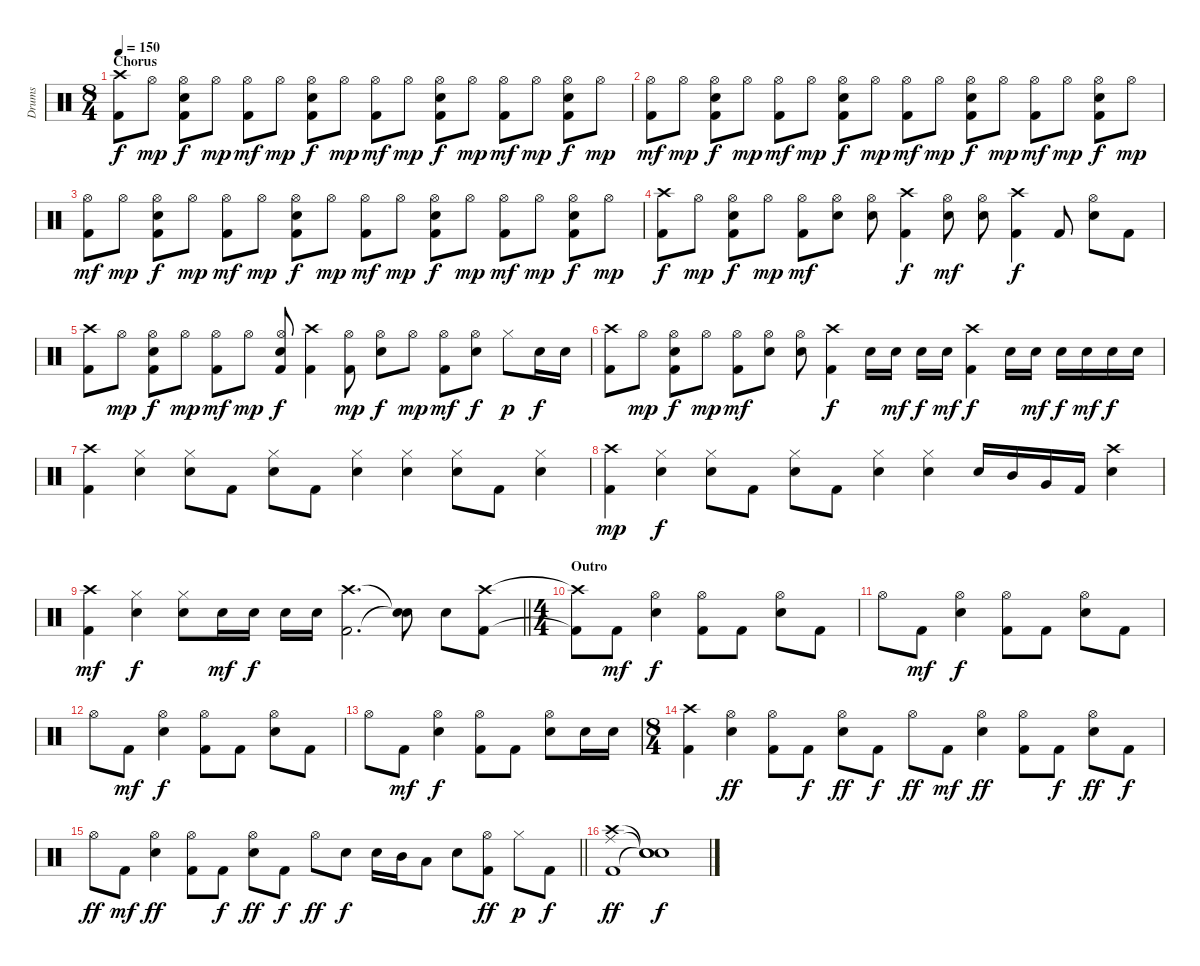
\track ("Drums" "Drums") {instrument percussion}
\staff {score}
\articulation defaults
\ts (8 4)
\section ("" "Chorus")
\tempo 150
\clef neutral
\ks c
("Crash high (hit)" "Kick (hit) 2").8{dy f} "Hi-Hat (open)".8{dy mp} ("Hi-Hat (open)" "Electric Snare (hit)" "Kick (hit) 2").8{dy f} "Hi-Hat (open)".8{dy mp} ("Hi-Hat (open)" "Kick (hit) 2").8{dy mf} "Hi-Hat (open)".8{dy mp} ("Hi-Hat (open)" "Electric Snare (hit)" "Kick (hit) 2").8{dy f} "Hi-Hat (open)".8{dy mp} ("Hi-Hat (open)" "Kick (hit) 2").8{dy mf} "Hi-Hat (open)".8{dy mp} ("Hi-Hat (open)" "Electric Snare (hit)" "Kick (hit) 2").8{dy f} "Hi-Hat (open)".8{dy mp} ("Hi-Hat (open)" "Kick (hit) 2").8{dy mf} "Hi-Hat (open)".8{dy mp} ("Hi-Hat (open)" "Electric Snare (hit)" "Kick (hit) 2").8{dy f} "Hi-Hat (open)".8{dy mp} |
("Hi-Hat (open)" "Kick (hit) 2").8{dy mf} "Hi-Hat (open)".8{dy mp} ("Hi-Hat (open)" "Electric Snare (hit)" "Kick (hit) 2").8{dy f} "Hi-Hat (open)".8{dy mp} ("Hi-Hat (open)" "Kick (hit) 2").8{dy mf} "Hi-Hat (open)".8{dy mp} ("Hi-Hat (open)" "Electric Snare (hit)" "Kick (hit) 2").8{dy f} "Hi-Hat (open)".8{dy mp} ("Hi-Hat (open)" "Kick (hit) 2").8{dy mf} "Hi-Hat (open)".8{dy mp} ("Hi-Hat (open)" "Electric Snare (hit)" "Kick (hit) 2").8{dy f} "Hi-Hat (open)".8{dy mp} ("Hi-Hat (open)" "Kick (hit) 2").8{dy mf} "Hi-Hat (open)".8{dy mp} ("Hi-Hat (open)" "Electric Snare (hit)" "Kick (hit) 2").8{dy f} "Hi-Hat (open)".8{dy mp} |
("Hi-Hat (open)" "Kick (hit) 2").8{dy mf} "Hi-Hat (open)".8{dy mp} ("Hi-Hat (open)" "Electric Snare (hit)" "Kick (hit) 2").8{dy f} "Hi-Hat (open)".8{dy mp} ("Hi-Hat (open)" "Kick (hit) 2").8{dy mf} "Hi-Hat (open)".8{dy mp} ("Hi-Hat (open)" "Electric Snare (hit)" "Kick (hit) 2").8{dy f} "Hi-Hat (open)".8{dy mp} ("Hi-Hat (open)" "Kick (hit) 2").8{dy mf} "Hi-Hat (open)".8{dy mp} ("Hi-Hat (open)" "Electric Snare (hit)" "Kick (hit) 2").8{dy f} "Hi-Hat (open)".8{dy mp} ("Hi-Hat (open)" "Kick (hit) 2").8{dy mf} "Hi-Hat (open)".8{dy mp} ("Hi-Hat (open)" "Electric Snare (hit)" "Kick (hit) 2").8{dy f} "Hi-Hat (open)".8{dy mp} |
("Crash high (hit)" "Kick (hit) 2").8{dy f} "Hi-Hat (open)".8{dy mp} ("Hi-Hat (open)" "Electric Snare (hit)" "Kick (hit) 2").8{dy f} "Hi-Hat (open)".8{dy mp} ("Hi-Hat (open)" "Kick (hit) 2").8{dy mf} ("Hi-Hat (open)" "Electric Snare (hit)").8 ("Hi-Hat (open)" "Electric Snare (hit)").8 ("Crash high (hit)" "Kick (hit) 2").4{dy f} ("Hi-Hat (open)" "Electric Snare (hit)").8{dy mf} ("Hi-Hat (open)" "Electric Snare (hit)").8 ("Crash high (hit)" "Kick (hit) 2").4{dy f} "Kick (hit) 2".8 ("Hi-Hat (open)" "Electric Snare (hit)").8 "Kick (hit) 2".8 |
("Crash high (hit)" "Kick (hit) 2").8 "Hi-Hat (open)".8{dy mp} ("Hi-Hat (open)" "Electric Snare (hit)" "Kick (hit) 2").8{dy f} "Hi-Hat (open)".8{dy mp} ("Hi-Hat (open)" "Kick (hit) 2").8{dy mf} "Hi-Hat (open)".8{dy mp} ("Hi-Hat (open)" "Electric Snare (hit)" "Kick (hit) 2").8{dy f} ("Crash high (hit)" "Kick (hit) 2").4 ("Hi-Hat (open)" "Kick (hit) 2").8{dy mp} ("Hi-Hat (open)" "Electric Snare (hit)").8{dy f} "Hi-Hat (open)".8{dy mp} ("Hi-Hat (open)" "Kick (hit) 2").8{dy mf} ("Hi-Hat (open)" "Electric Snare (hit)").8{dy f} "Hi-Hat (closed)".8{dy p} "Electric Snare (hit)".16{dy f} "Electric Snare (hit)".16 |
("Crash high (hit)" "Kick (hit) 2").8 "Hi-Hat (open)".8{dy mp} ("Hi-Hat (open)" "Electric Snare (hit)" "Kick (hit) 2").8{dy f} "Hi-Hat (open)".8{dy mp} ("Hi-Hat (open)" "Kick (hit) 2").8{dy mf} ("Hi-Hat (open)" "Electric Snare (hit)").8 ("Hi-Hat (open)" "Electric Snare (hit)").8 ("Crash high (hit)" "Kick (hit) 2").4{dy f} "Electric Snare (hit)".16 "Electric Snare (hit)".16{dy mf} "Electric Snare (hit)".16{dy f} "Electric Snare (hit)".16{dy mf} ("Crash high (hit)" "Kick (hit) 2").4{dy f} "Electric Snare (hit)".16 "Electric Snare (hit)".16{dy mf} "Electric Snare (hit)".16{dy f} "Electric Snare (hit)".16{dy mf} "Electric Snare (hit)".16{dy f} "Electric Snare (hit)".16 |
("Crash high (hit)" "Kick (hit) 2").4 ("Hi-Hat (closed)" "Electric Snare (hit)").4 ("Hi-Hat (closed)" "Electric Snare (hit)").8 "Kick (hit) 2".8 ("Hi-Hat (closed)" "Electric Snare (hit)").8 "Kick (hit) 2".8 ("Hi-Hat (closed)" "Electric Snare (hit)").4 ("Hi-Hat (closed)" "Electric Snare (hit)").4 ("Hi-Hat (closed)" "Electric Snare (hit)").8 "Kick (hit) 2".8 ("Hi-Hat (closed)" "Electric Snare (hit)").4 |
("Crash high (hit)" "Kick (hit) 2").4{dy mp} ("Hi-Hat (closed)" "Electric Snare (hit)").4{dy f} ("Hi-Hat (closed)" "Electric Snare (hit)").8 "Kick (hit) 2".8 ("Hi-Hat (closed)" "Electric Snare (hit)").8 "Kick (hit) 2".8 ("Hi-Hat (closed)" "Electric Snare (hit)").4 ("Hi-Hat (closed)" "Electric Snare (hit)").4 "Electric Snare (hit)".16 "Mid Tom (hit)".16 "Very Low Tom (hit)".16 "Kick (hit) 2".16 ("Crash high (hit)" "Electric Snare (hit)").4 |
\barLineRight lightlight
("Crash high (hit)" "Kick (hit) 2").4{dy mf} ("Hi-Hat (closed)" "Electric Snare (hit)").4{dy f} ("Hi-Hat (closed)" "Electric Snare (hit)").8 "Electric Snare (hit)".16{dy mf} "Electric Snare (hit)".16{dy f} "Electric Snare (hit)".16 "Electric Snare (hit)".16 ("Crash high (hit)" "Kick (hit) 2").2{d} ("Snare (hit)"{t} "Snare (hit)"{t}).8 "Electric Snare (hit)".8 ("Crash high (hit)" "Kick (hit) 2").8 |
\ts (4 4)
\section ("" "Outro")
("Crash high (hit)"{t} "Kick (hit) 2"{t}).8 "Kick (hit) 2".8{dy mf} ("Hi-Hat (open)" "Electric Snare (hit)").4{dy f} ("Hi-Hat (open)" "Kick (hit) 2").8 "Kick (hit) 2".8 ("Hi-Hat (open)" "Electric Snare (hit)").8 "Kick (hit) 2".8 |
"Hi-Hat (open)".8 "Kick (hit) 2".8{dy mf} ("Hi-Hat (open)" "Electric Snare (hit)").4{dy f} ("Hi-Hat (open)" "Kick (hit) 2").8 "Kick (hit) 2".8 ("Hi-Hat (open)" "Electric Snare (hit)").8 "Kick (hit) 2".8 |
"Hi-Hat (open)".8 "Kick (hit) 2".8{dy mf} ("Hi-Hat (open)" "Electric Snare (hit)").4{dy f} ("Hi-Hat (open)" "Kick (hit) 2").8 "Kick (hit) 2".8 ("Hi-Hat (open)" "Electric Snare (hit)").8 "Kick (hit) 2".8 |
"Hi-Hat (open)".8 "Kick (hit) 2".8{dy mf} ("Hi-Hat (open)" "Electric Snare (hit)").4{dy f} ("Hi-Hat (open)" "Kick (hit) 2").8 "Kick (hit) 2".8 ("Hi-Hat (open)" "Electric Snare (hit)").8 "Electric Snare (hit)".16 "Electric Snare (hit)".16 |
\ts (8 4)
("Crash high (hit)" "Kick (hit) 2").4 ("Hi-Hat (open)" "Electric Snare (hit)").4{dy ff} ("Hi-Hat (open)" "Kick (hit) 2").8 "Kick (hit) 2".8{dy f} ("Hi-Hat (open)" "Electric Snare (hit)").8{dy ff} "Kick (hit) 2".8{dy f} "Hi-Hat (open)".8{dy ff} "Kick (hit) 2".8{dy mf} ("Hi-Hat (open)" "Electric Snare (hit)").4{dy ff} ("Hi-Hat (open)" "Kick (hit) 2").8 "Kick (hit) 2".8{dy f} ("Hi-Hat (open)" "Electric Snare (hit)").8{dy ff} "Kick (hit) 2".8{dy f} |
\barLineRight lightlight "Hi-Hat (open)".8{dy ff} "Kick (hit) 2".8{dy mf}
("Hi-Hat (open)" "Electric Snare (hit)").4{dy ff} ("Hi-Hat (open)" "Kick (hit) 2").8 "Kick (hit) 2".8{dy f} ("Hi-Hat (open)" "Electric Snare (hit)").8{dy ff} "Kick (hit) 2".8{dy f} "Hi-Hat (open)".8{dy ff} "Electric Snare (hit)".8{dy f} "Electric Snare (hit)".16 "Mid Tom (hit)".16 "Low Tom (hit)".8 "Electric Snare (hit)".8 ("Hi-Hat (open)" "Kick (hit) 2").8{dy ff} "Hi-Hat (closed)".8{dy p} "Kick (hit) 2".8{dy f} |
("Crash high (hit)" "Ride (middle)" "Kick (hit) 2").1{dy ff} ("Snare (hit)"{t} "Snare (hit)"{t} "Snare (hit)"{t}).1{dy f}
